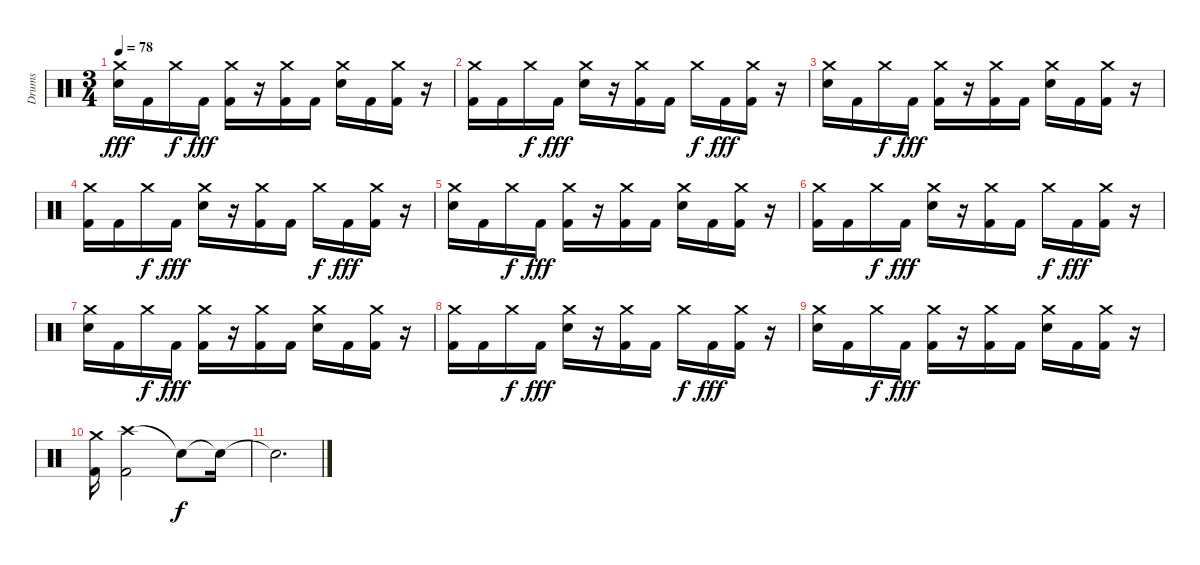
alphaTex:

\track ("Drums" "Drums") {instrument percussion}
\staff {score}
\articulation defaults
\ts (3 4)
\tempo 78
\clef neutral
\ks c
("Crash medium (hit)" "Electric Snare (hit)").16{dy fff} "Kick (hit) 2".16 "Crash medium (hit)".16{dy f} "Kick (hit) 2".16{dy fff} ("Crash medium (hit)" "Kick (hit) 2").16 r.16 ("Crash medium (hit)" "Kick (hit) 2").16 "Kick (hit) 2".16 ("Crash medium (hit)" "Electric Snare (hit)").16 "Kick (hit) 2".16 ("Crash medium (hit)" "Kick (hit) 2").16 r.16 |
("Crash medium (hit)" "Kick (hit) 2").16 "Kick (hit) 2".16 "Crash medium (hit)".16{dy f} "Kick (hit) 2".16{dy fff} ("Crash medium (hit)" "Electric Snare (hit)").16 r.16 ("Crash medium (hit)" "Kick (hit) 2").16 "Kick (hit) 2".16 "Crash medium (hit)".16{dy f} "Kick (hit) 2".16{dy fff} ("Crash medium (hit)" "Kick (hit) 2").16 r.16 |
("Crash medium (hit)" "Electric Snare (hit)").16 "Kick (hit) 2".16 "Crash medium (hit)".16{dy f} "Kick (hit) 2".16{dy fff} ("Crash medium (hit)" "Kick (hit) 2").16 r.16 ("Crash medium (hit)" "Kick (hit) 2").16 "Kick (hit) 2".16 ("Crash medium (hit)" "Electric Snare (hit)").16 "Kick (hit) 2".16 ("Crash medium (hit)" "Kick (hit) 2").16 r.16 |
("Crash medium (hit)" "Kick (hit) 2").16 "Kick (hit) 2".16 "Crash medium (hit)".16{dy f} "Kick (hit) 2".16{dy fff} ("Crash medium (hit)" "Electric Snare (hit)").16 r.16 ("Crash medium (hit)" "Kick (hit) 2").16 "Kick (hit) 2".16 "Crash medium (hit)".16{dy f} "Kick (hit) 2".16{dy fff} ("Crash medium (hit)" "Kick (hit) 2").16 r.16 |
("Crash medium (hit)" "Electric Snare (hit)").16 "Kick (hit) 2".16 "Crash medium (hit)".16{dy f} "Kick (hit) 2".16{dy fff} ("Crash medium (hit)" "Kick (hit) 2").16 r.16 ("Crash medium (hit)" "Kick (hit) 2").16 "Kick (hit) 2".16 ("Crash medium (hit)" "Electric Snare (hit)").16 "Kick (hit) 2".16 ("Crash medium (hit)" "Kick (hit) 2").16 r.16 |
("Crash medium (hit)" "Kick (hit) 2").16 "Kick (hit) 2".16 "Crash medium (hit)".16{dy f} "Kick (hit) 2".16{dy fff} ("Crash medium (hit)" "Electric Snare (hit)").16 r.16 ("Crash medium (hit)" "Kick (hit) 2").16 "Kick (hit) 2".16 "Crash medium (hit)".16{dy f} "Kick (hit) 2".16{dy fff} ("Crash medium (hit)" "Kick (hit) 2").16 r.16 |
("Crash medium (hit)" "Electric Snare (hit)").16 "Kick (hit) 2".16 "Crash medium (hit)".16{dy f} "Kick (hit) 2".16{dy fff} ("Crash medium (hit)" "Kick (hit) 2").16 r.16 ("Crash medium (hit)" "Kick (hit) 2").16 "Kick (hit) 2".16 ("Crash medium (hit)" "Electric Snare (hit)").16 "Kick (hit) 2".16 ("Crash medium (hit)" "Kick (hit) 2").16 r.16 |
("Crash medium (hit)" "Kick (hit) 2").16 "Kick (hit) 2".16 "Crash medium (hit)".16{dy f} "Kick (hit) 2".16{dy fff} ("Crash medium (hit)" "Electric Snare (hit)").16 r.16 ("Crash medium (hit)" "Kick (hit) 2").16 "Kick (hit) 2".16 "Crash medium (hit)".16{dy f} "Kick (hit) 2".16{dy fff} ("Crash medium (hit)" "Kick (hit) 2").16 r.16 |
("Crash medium (hit)" "Electric Snare (hit)").16 "Kick (hit) 2".16 "Crash medium (hit)".16{dy f} "Kick (hit) 2".16{dy fff} ("Crash medium (hit)" "Kick (hit) 2").16 r.16 ("Crash medium (hit)" "Kick (hit) 2").16 "Kick (hit) 2".16 ("Crash medium (hit)" "Electric Snare (hit)").16 "Kick (hit) 2".16 ("Crash medium (hit)" "Kick (hit) 2").16 r.16 |
("Crash medium (hit)" "Kick (hit) 2").16 ("Crash high (hit)" "Kick (hit) 2").2 "Snare (hit)"{t}.8{dy f} "Snare (hit)"{t}.16 |
"Snare (hit)"{t}.2{d}
